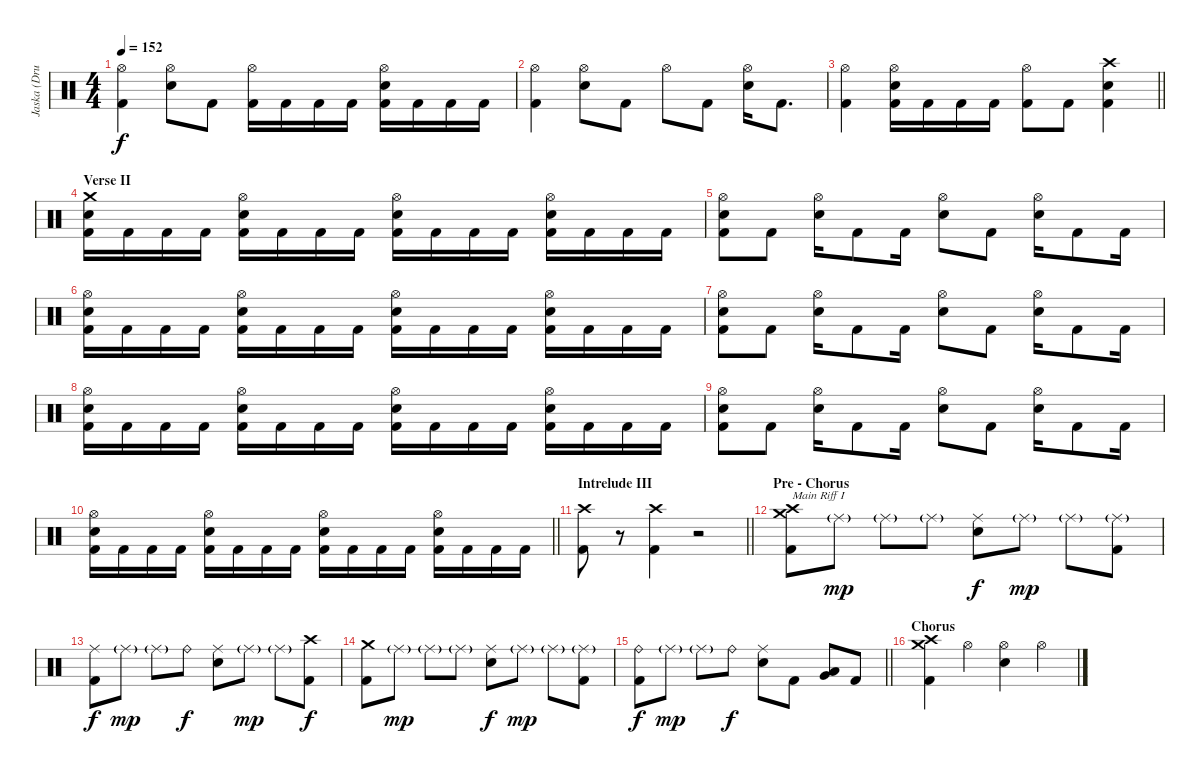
\track ("Jaska (Drums)" "Jaska (Dru") {instrument percussion}
\staff {score}
\articulation defaults
\ts (4 4)
\tempo 152
\clef neutral
\ks c
("Hi-Hat (open)" "Kick (hit) 2").4{dy f} ("Hi-Hat (open)" "Electric Snare (hit)").8 "Kick (hit) 2".8 ("Hi-Hat (open)" "Kick (hit) 2").16 "Kick (hit) 2".16 "Kick (hit) 2".16 "Kick (hit) 2".16 ("Hi-Hat (open)" "Electric Snare (hit)" "Kick (hit) 2").16 "Kick (hit) 2".16 "Kick (hit) 2".16 "Kick (hit) 2".16 |
("Hi-Hat (open)" "Kick (hit) 2").4 ("Hi-Hat (open)" "Electric Snare (hit)").8 "Kick (hit) 2".8 "Hi-Hat (open)".8 "Kick (hit) 2".8 ("Hi-Hat (open)" "Electric Snare (hit)").16 "Kick (hit) 2".8{d} |
\barLineRight lightlight
("Hi-Hat (open)" "Kick (hit) 2").4 ("Hi-Hat (open)" "Electric Snare (hit)" "Kick (hit) 2").16 "Kick (hit) 2".16 "Kick (hit) 2".16 "Kick (hit) 2".16 ("Hi-Hat (open)" "Kick (hit) 2").8 "Kick (hit) 2".8 ("Crash high (hit)" "Electric Snare (hit)" "Kick (hit) 2").4 |
\section ("" "Verse II")
("Crash medium (hit)" "Electric Snare (hit)" "Kick (hit) 2").16 "Kick (hit) 2".16 "Kick (hit) 2".16 "Kick (hit) 2".16 ("Hi-Hat (open)" "Electric Snare (hit)" "Kick (hit) 2").16 "Kick (hit) 2".16 "Kick (hit) 2".16 "Kick (hit) 2".16 ("Hi-Hat (open)" "Electric Snare (hit)" "Kick (hit) 2").16 "Kick (hit) 2".16 "Kick (hit) 2".16 "Kick (hit) 2".16 ("Hi-Hat (open)" "Electric Snare (hit)" "Kick (hit) 2").16 "Kick (hit) 2".16 "Kick (hit) 2".16 "Kick (hit) 2".16 |
("Hi-Hat (open)" "Electric Snare (hit)" "Kick (hit) 2").8 "Kick (hit) 2".8 ("Hi-Hat (open)" "Electric Snare (hit)").16 "Kick (hit) 2".8 "Kick (hit) 2".16 ("Hi-Hat (open)" "Electric Snare (hit)").8 "Kick (hit) 2".8 ("Hi-Hat (open)" "Electric Snare (hit)").16 "Kick (hit) 2".8 "Kick (hit) 2".16 |
("Hi-Hat (open)" "Electric Snare (hit)" "Kick (hit) 2").16 "Kick (hit) 2".16 "Kick (hit) 2".16 "Kick (hit) 2".16 ("Hi-Hat (open)" "Electric Snare (hit)" "Kick (hit) 2").16 "Kick (hit) 2".16 "Kick (hit) 2".16 "Kick (hit) 2".16 ("Hi-Hat (open)" "Electric Snare (hit)" "Kick (hit) 2").16 "Kick (hit) 2".16 "Kick (hit) 2".16 "Kick (hit) 2".16 ("Hi-Hat (open)" "Electric Snare (hit)" "Kick (hit) 2").16 "Kick (hit) 2".16 "Kick (hit) 2".16 "Kick (hit) 2".16 |
("Hi-Hat (open)" "Electric Snare (hit)" "Kick (hit) 2").8 "Kick (hit) 2".8 ("Hi-Hat (open)" "Electric Snare (hit)").16 "Kick (hit) 2".8 "Kick (hit) 2".16 ("Hi-Hat (open)" "Electric Snare (hit)").8 "Kick (hit) 2".8 ("Hi-Hat (open)" "Electric Snare (hit)").16 "Kick (hit) 2".8 "Kick (hit) 2".16 |
("Hi-Hat (open)" "Electric Snare (hit)" "Kick (hit) 2").16 "Kick (hit) 2".16 "Kick (hit) 2".16 "Kick (hit) 2".16 ("Hi-Hat (open)" "Electric Snare (hit)" "Kick (hit) 2").16 "Kick (hit) 2".16 "Kick (hit) 2".16 "Kick (hit) 2".16 ("Hi-Hat (open)" "Electric Snare (hit)" "Kick (hit) 2").16 "Kick (hit) 2".16 "Kick (hit) 2".16 "Kick (hit) 2".16 ("Hi-Hat (open)" "Electric Snare (hit)" "Kick (hit) 2").16 "Kick (hit) 2".16 "Kick (hit) 2".16 "Kick (hit) 2".16 |
("Hi-Hat (open)" "Electric Snare (hit)" "Kick (hit) 2").8 "Kick (hit) 2".8 ("Hi-Hat (open)" "Electric Snare (hit)").16 "Kick (hit) 2".8 "Kick (hit) 2".16 ("Hi-Hat (open)" "Electric Snare (hit)").8 "Kick (hit) 2".8 ("Hi-Hat (open)" "Electric Snare (hit)").16 "Kick (hit) 2".8 "Kick (hit) 2".16 |
\barLineRight lightlight
("Hi-Hat (open)" "Electric Snare (hit)" "Kick (hit) 2").16 "Kick (hit) 2".16 "Kick (hit) 2".16 "Kick (hit) 2".16 ("Hi-Hat (open)" "Electric Snare (hit)" "Kick (hit) 2").16 "Kick (hit) 2".16 "Kick (hit) 2".16 "Kick (hit) 2".16 ("Hi-Hat (open)" "Electric Snare (hit)" "Kick (hit) 2").16 "Kick (hit) 2".16 "Kick (hit) 2".16 "Kick (hit) 2".16 ("Hi-Hat (open)" "Electric Snare (hit)" "Kick (hit) 2").16 "Kick (hit) 2".16 "Kick (hit) 2".16 "Kick (hit) 2".16 |
\section ("" "Intrelude III")
\barLineRight lightlight
("Crash high (hit)" "Kick (hit) 2").8{volume 16} r.8{volume 0} ("Crash high (hit)" "Kick (hit) 2").4{volume 16} r.2{volume 0} |
\section ("" "Pre - Chorus")
("Crash medium (hit)" "Crash high (hit)" "Kick (hit) 2").8{txt "Main Riff I" volume 16 balance 8} "Ride (middle)"{g}.8{dy mp} "Ride (middle)"{g}.8 "Ride (middle)"{g}.8 ("Ride (middle)" "Electric Snare (hit)").8{dy f} "Ride (middle)"{g}.8{dy mp} "Ride (middle)"{g}.8 ("Ride (middle)"{g} "Kick (hit) 2").8 |
("Ride (middle)" "Kick (hit) 2").8{dy f} "Ride (middle)"{g}.8{dy mp} "Ride (middle)"{g}.8 "Ride (bell)".8{dy f} ("Ride (middle)" "Electric Snare (hit)").8 "Ride (middle)"{g}.8{dy mp} "Ride (middle)"{g}.8 ("Crash high (hit)" "Kick (hit) 2").8{dy f} |
("Crash medium (hit)" "Kick (hit) 2").8 "Ride (middle)"{g}.8{dy mp} "Ride (middle)"{g}.8 "Ride (middle)"{g}.8 ("Ride (middle)" "Electric Snare (hit)").8{dy f} "Ride (middle)"{g}.8{dy mp} "Ride (middle)"{g}.8 ("Ride (middle)"{g} "Kick (hit) 2").8 |
\barLineRight lightlight
("Ride (bell)" "Kick (hit) 2").8{dy f} "Ride (middle)"{g}.8{dy mp} "Ride (middle)"{g}.8 "Ride (bell)".8{dy f} ("Ride (middle)" "Electric Snare (hit)").8 "Kick (hit) 2".8 ("Low Tom (hit)" "Very Low Tom (hit)").8 "Kick (hit) 2".8 |
\section ("" "Chorus")
("Crash medium (hit)" "Crash high (hit)" "Kick (hit) 2").4 "Hi-Hat (open)".4 ("Hi-Hat (open)" "Electric Snare (hit)").4 "Hi-Hat (open)".4
